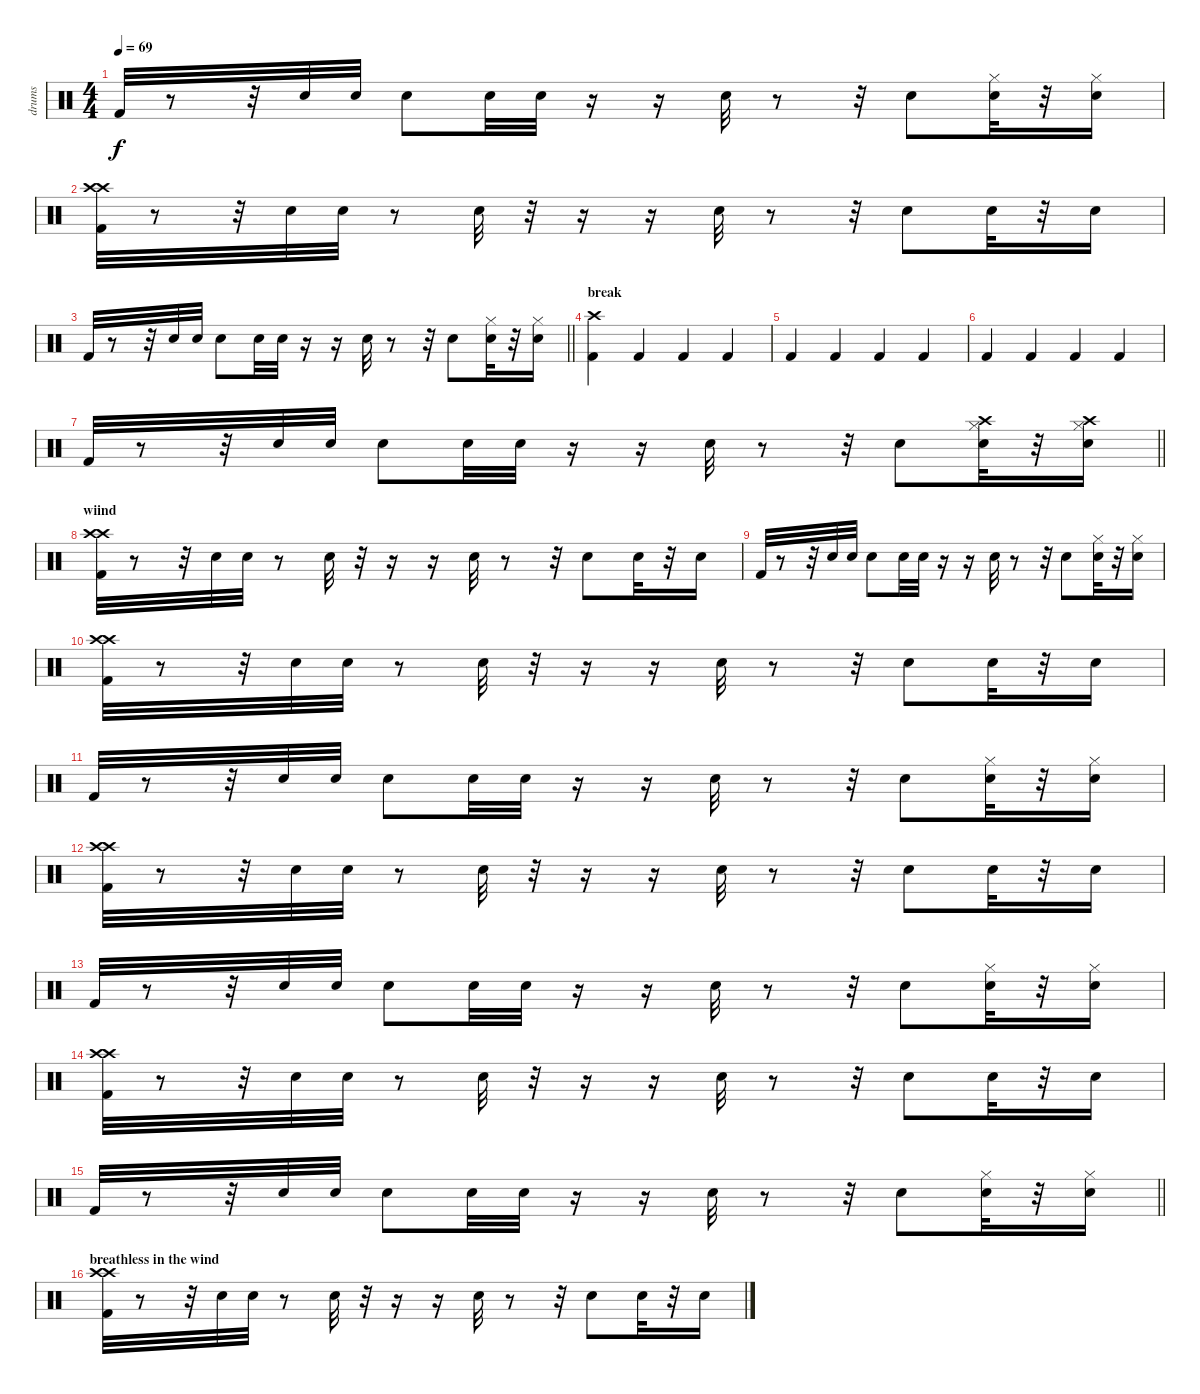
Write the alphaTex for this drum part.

\track ("drums" "drums") {instrument percussion}
\staff {score}
\articulation defaults
\ts (4 4)
\tempo 69
\clef neutral
\ks c "Kick (hit) 2".32{dy f}
r.8 r.32 "Snare (hit) 2".32 "Snare (hit) 2".32 "Snare (hit) 2".8 "Snare (hit) 2".32 "Snare (hit) 2".32 r.16 r.16 "Snare (hit) 2".32 r.8 r.32 "Snare (hit) 2".8 ("Snare (hit) 2" "Hi-Hat (closed)").32 r.32 ("Snare (hit) 2" "Hi-Hat (closed)").16 |
("Kick (hit) 2" "Crash high (hit)" "Crash high (hit)").32 r.8 r.32 "Snare (hit) 2".32 "Snare (hit) 2".32 r.8 "Snare (hit) 2".32 r.32 r.16 r.16 "Snare (hit) 2".32 r.8 r.32 "Snare (hit) 2".8 "Snare (hit) 2".32 r.32 "Snare (hit) 2".16 |
\barLineRight lightlight "Kick (hit) 2".32
r.8 r.32 "Snare (hit) 2".32 "Snare (hit) 2".32 "Snare (hit) 2".8 "Snare (hit) 2".32 "Snare (hit) 2".32 r.16 r.16 "Snare (hit) 2".32 r.8 r.32 "Snare (hit) 2".8 ("Snare (hit) 2" "Hi-Hat (closed)").32 r.32 ("Snare (hit) 2" "Hi-Hat (closed)").16 |
\section ("" "break")
("Kick (hit) 2" "Crash high (hit)").4 "Kick (hit) 2".4 "Kick (hit) 2".4 "Kick (hit) 2".4 |
"Kick (hit) 2".4 "Kick (hit) 2".4 "Kick (hit) 2".4 "Kick (hit) 2".4 |
"Kick (hit) 2".4 "Kick (hit) 2".4 "Kick (hit) 2".4 "Kick (hit) 2".4 |
\barLineRight lightlight "Kick (hit) 2".32
r.8 r.32 "Snare (hit) 2".32 "Snare (hit) 2".32 "Snare (hit) 2".8 "Snare (hit) 2".32 "Snare (hit) 2".32 r.16 r.16 "Snare (hit) 2".32 r.8 r.32 "Snare (hit) 2".8 ("Snare (hit) 2" "Hi-Hat (closed)" "Crash high (hit)").32 r.32 ("Snare (hit) 2" "Hi-Hat (closed)" "Crash high (hit)").16 |
\section ("" "wiind")
("Kick (hit) 2" "Crash high (hit)" "Crash high (hit)").32 r.8 r.32 "Snare (hit) 2".32 "Snare (hit) 2".32 r.8 "Snare (hit) 2".32 r.32 r.16 r.16 "Snare (hit) 2".32 r.8 r.32 "Snare (hit) 2".8 "Snare (hit) 2".32 r.32 "Snare (hit) 2".16 |
"Kick (hit) 2".32 r.8 r.32 "Snare (hit) 2".32 "Snare (hit) 2".32 "Snare (hit) 2".8 "Snare (hit) 2".32 "Snare (hit) 2".32 r.16 r.16 "Snare (hit) 2".32 r.8 r.32 "Snare (hit) 2".8 ("Snare (hit) 2" "Hi-Hat (closed)").32 r.32 ("Snare (hit) 2" "Hi-Hat (closed)").16 |
("Kick (hit) 2" "Crash high (hit)" "Crash high (hit)").32 r.8 r.32 "Snare (hit) 2".32 "Snare (hit) 2".32 r.8 "Snare (hit) 2".32 r.32 r.16 r.16 "Snare (hit) 2".32 r.8 r.32 "Snare (hit) 2".8 "Snare (hit) 2".32 r.32 "Snare (hit) 2".16 |
"Kick (hit) 2".32 r.8 r.32 "Snare (hit) 2".32 "Snare (hit) 2".32 "Snare (hit) 2".8 "Snare (hit) 2".32 "Snare (hit) 2".32 r.16 r.16 "Snare (hit) 2".32 r.8 r.32 "Snare (hit) 2".8 ("Snare (hit) 2" "Hi-Hat (closed)").32 r.32 ("Snare (hit) 2" "Hi-Hat (closed)").16 |
("Kick (hit) 2" "Crash high (hit)" "Crash high (hit)").32 r.8 r.32 "Snare (hit) 2".32 "Snare (hit) 2".32 r.8 "Snare (hit) 2".32 r.32 r.16 r.16 "Snare (hit) 2".32 r.8 r.32 "Snare (hit) 2".8 "Snare (hit) 2".32 r.32 "Snare (hit) 2".16 |
"Kick (hit) 2".32 r.8 r.32 "Snare (hit) 2".32 "Snare (hit) 2".32 "Snare (hit) 2".8 "Snare (hit) 2".32 "Snare (hit) 2".32 r.16 r.16 "Snare (hit) 2".32 r.8 r.32 "Snare (hit) 2".8 ("Snare (hit) 2" "Hi-Hat (closed)").32 r.32 ("Snare (hit) 2" "Hi-Hat (closed)").16 |
("Kick (hit) 2" "Crash high (hit)" "Crash high (hit)").32 r.8 r.32 "Snare (hit) 2".32 "Snare (hit) 2".32 r.8 "Snare (hit) 2".32 r.32 r.16 r.16 "Snare (hit) 2".32 r.8 r.32 "Snare (hit) 2".8 "Snare (hit) 2".32 r.32 "Snare (hit) 2".16 |
\barLineRight lightlight "Kick (hit) 2".32
r.8 r.32 "Snare (hit) 2".32 "Snare (hit) 2".32 "Snare (hit) 2".8 "Snare (hit) 2".32 "Snare (hit) 2".32 r.16 r.16 "Snare (hit) 2".32 r.8 r.32 "Snare (hit) 2".8 ("Snare (hit) 2" "Hi-Hat (closed)").32 r.32 ("Snare (hit) 2" "Hi-Hat (closed)").16 |
\section ("" "breathless in the wind")
("Kick (hit) 2" "Crash high (hit)" "Crash high (hit)").32 r.8 r.32 "Snare (hit) 2".32 "Snare (hit) 2".32 r.8 "Snare (hit) 2".32 r.32 r.16 r.16 "Snare (hit) 2".32 r.8 r.32 "Snare (hit) 2".8 "Snare (hit) 2".32 r.32 "Snare (hit) 2".16
